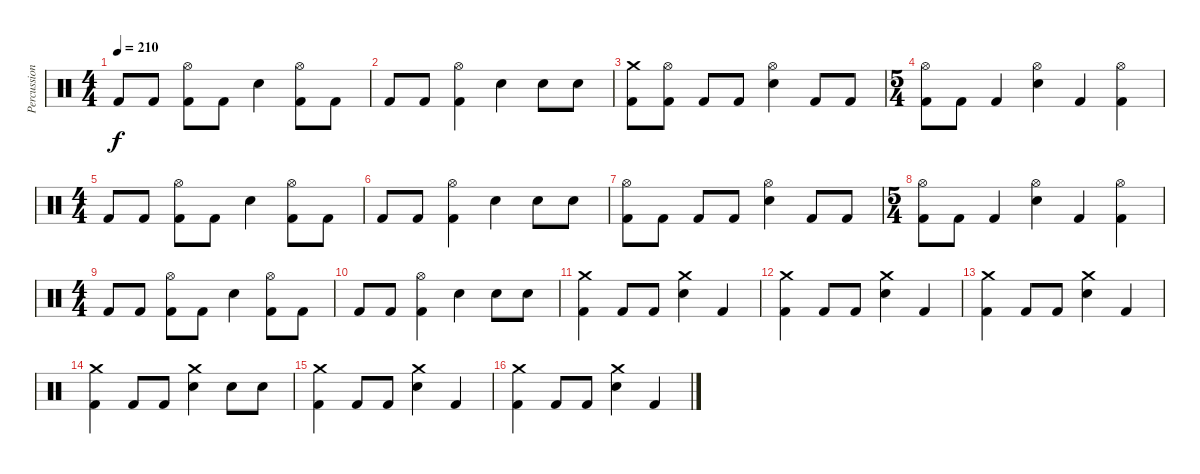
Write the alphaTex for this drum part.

\track ("Percussion" "Percussion") {instrument percussion}
\staff {score}
\articulation defaults
\ts (4 4)
\tempo 210
\clef neutral
\ks c "Kick (hit) 2".8{dy f} "Kick (hit) 2".8
("Hi-Hat (open)" "Kick (hit) 2").8 "Kick (hit) 2".8 "Electric Snare (hit)".4 ("Hi-Hat (open)" "Kick (hit) 2").8 "Kick (hit) 2".8 |
"Kick (hit) 2".8 "Kick (hit) 2".8 ("Hi-Hat (open)" "Kick (hit) 2").4 "Electric Snare (hit)".4 "Electric Snare (hit)".8 "Electric Snare (hit)".8 |
("Crash medium (hit)" "Kick (hit) 2").8 ("Hi-Hat (open)" "Kick (hit) 2").8 "Kick (hit) 2".8 "Kick (hit) 2".8 ("Hi-Hat (open)" "Electric Snare (hit)").4 "Kick (hit) 2".8 "Kick (hit) 2".8 |
\ts (5 4)
("Hi-Hat (open)" "Kick (hit) 2").8 "Kick (hit) 2".8 "Kick (hit) 2".4 ("Hi-Hat (open)" "Electric Snare (hit)").4 "Kick (hit) 2".4 ("Hi-Hat (open)" "Kick (hit) 2").4 |
\ts (4 4)
"Kick (hit) 2".8 "Kick (hit) 2".8 ("Hi-Hat (open)" "Kick (hit) 2").8 "Kick (hit) 2".8 "Electric Snare (hit)".4 ("Hi-Hat (open)" "Kick (hit) 2").8 "Kick (hit) 2".8 |
"Kick (hit) 2".8 "Kick (hit) 2".8 ("Hi-Hat (open)" "Kick (hit) 2").4 "Electric Snare (hit)".4 "Electric Snare (hit)".8 "Electric Snare (hit)".8 |
("Hi-Hat (open)" "Kick (hit) 2").8 "Kick (hit) 2".8 "Kick (hit) 2".8 "Kick (hit) 2".8 ("Hi-Hat (open)" "Electric Snare (hit)").4 "Kick (hit) 2".8 "Kick (hit) 2".8 |
\ts (5 4)
("Hi-Hat (open)" "Kick (hit) 2").8 "Kick (hit) 2".8 "Kick (hit) 2".4 ("Hi-Hat (open)" "Electric Snare (hit)").4 "Kick (hit) 2".4 ("Hi-Hat (open)" "Kick (hit) 2").4 |
\ts (4 4)
"Kick (hit) 2".8 "Kick (hit) 2".8 ("Hi-Hat (open)" "Kick (hit) 2").8 "Kick (hit) 2".8 "Electric Snare (hit)".4 ("Hi-Hat (open)" "Kick (hit) 2").8 "Kick (hit) 2".8 |
"Kick (hit) 2".8 "Kick (hit) 2".8 ("Hi-Hat (open)" "Kick (hit) 2").4 "Electric Snare (hit)".4 "Electric Snare (hit)".8 "Electric Snare (hit)".8 |
("Crash medium (hit)" "Kick (hit) 2").4 "Kick (hit) 2".8 "Kick (hit) 2".8 ("Crash medium (hit)" "Electric Snare (hit)").4 "Kick (hit) 2".4 |
("Crash medium (hit)" "Kick (hit) 2").4 "Kick (hit) 2".8 "Kick (hit) 2".8 ("Crash medium (hit)" "Electric Snare (hit)").4 "Kick (hit) 2".4 |
("Crash medium (hit)" "Kick (hit) 2").4 "Kick (hit) 2".8 "Kick (hit) 2".8 ("Crash medium (hit)" "Electric Snare (hit)").4 "Kick (hit) 2".4 |
("Crash medium (hit)" "Kick (hit) 2").4 "Kick (hit) 2".8 "Kick (hit) 2".8 ("Crash medium (hit)" "Electric Snare (hit)").4 "Electric Snare (hit)".8 "Electric Snare (hit)".8 |
("Crash medium (hit)" "Kick (hit) 2").4 "Kick (hit) 2".8 "Kick (hit) 2".8 ("Crash medium (hit)" "Electric Snare (hit)").4 "Kick (hit) 2".4 |
("Crash medium (hit)" "Kick (hit) 2").4 "Kick (hit) 2".8 "Kick (hit) 2".8 ("Crash medium (hit)" "Electric Snare (hit)").4 "Kick (hit) 2".4
